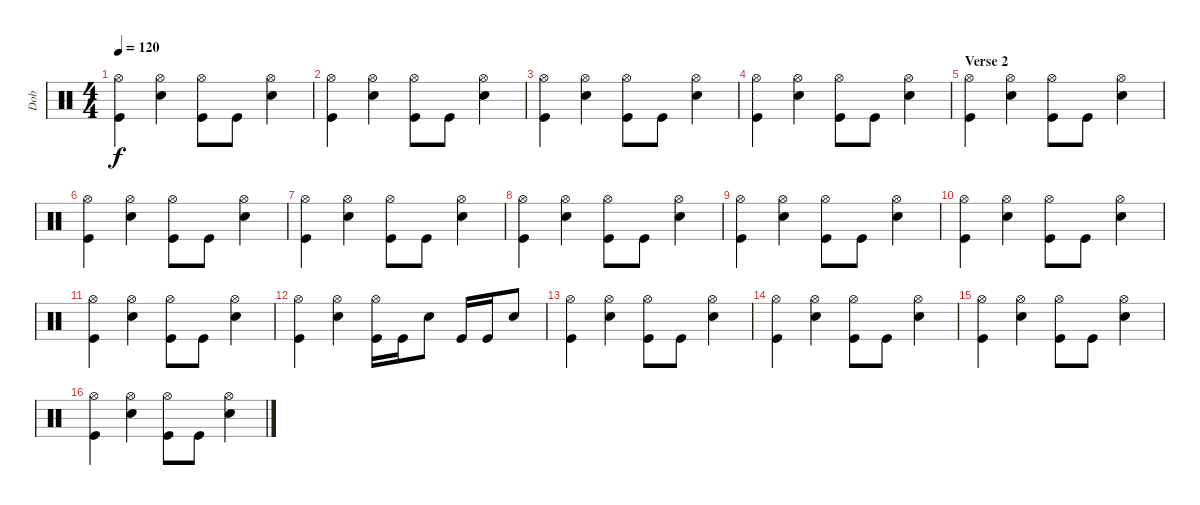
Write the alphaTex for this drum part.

\track ("Dob" "Dob") {instrument percussion}
\staff {score}
\articulation defaults
\ts (4 4)
\tempo 120
\clef neutral
\ks c
("Hi-Hat (open)" "Kick (hit)").4{dy f} ("Hi-Hat (open)" "Snare (hit) 2").4 ("Hi-Hat (open)" "Kick (hit)").8 "Kick (hit)".8 ("Hi-Hat (open)" "Snare (hit) 2").4 |
("Hi-Hat (open)" "Kick (hit)").4 ("Hi-Hat (open)" "Snare (hit) 2").4 ("Hi-Hat (open)" "Kick (hit)").8 "Kick (hit)".8 ("Hi-Hat (open)" "Snare (hit) 2").4 |
("Hi-Hat (open)" "Kick (hit)").4 ("Hi-Hat (open)" "Snare (hit) 2").4 ("Hi-Hat (open)" "Kick (hit)").8 "Kick (hit)".8 ("Hi-Hat (open)" "Snare (hit) 2").4 |
("Hi-Hat (open)" "Kick (hit)").4 ("Hi-Hat (open)" "Snare (hit) 2").4 ("Hi-Hat (open)" "Kick (hit)").8 "Kick (hit)".8 ("Hi-Hat (open)" "Snare (hit) 2").4 |
\section ("" "Verse 2")
("Hi-Hat (open)" "Kick (hit)").4 ("Hi-Hat (open)" "Snare (hit) 2").4 ("Hi-Hat (open)" "Kick (hit)").8 "Kick (hit)".8 ("Hi-Hat (open)" "Snare (hit) 2").4 |
("Hi-Hat (open)" "Kick (hit)").4 ("Hi-Hat (open)" "Snare (hit) 2").4 ("Hi-Hat (open)" "Kick (hit)").8 "Kick (hit)".8 ("Hi-Hat (open)" "Snare (hit) 2").4 |
("Hi-Hat (open)" "Kick (hit)").4 ("Hi-Hat (open)" "Snare (hit) 2").4 ("Hi-Hat (open)" "Kick (hit)").8 "Kick (hit)".8 ("Hi-Hat (open)" "Snare (hit) 2").4 |
("Hi-Hat (open)" "Kick (hit)").4 ("Hi-Hat (open)" "Snare (hit) 2").4 ("Hi-Hat (open)" "Kick (hit)").8 "Kick (hit)".8 ("Hi-Hat (open)" "Snare (hit) 2").4 |
("Hi-Hat (open)" "Kick (hit)").4 ("Hi-Hat (open)" "Snare (hit) 2").4 ("Hi-Hat (open)" "Kick (hit)").8 "Kick (hit)".8 ("Hi-Hat (open)" "Snare (hit) 2").4 |
("Hi-Hat (open)" "Kick (hit)").4 ("Hi-Hat (open)" "Snare (hit) 2").4 ("Hi-Hat (open)" "Kick (hit)").8 "Kick (hit)".8 ("Hi-Hat (open)" "Snare (hit) 2").4 |
("Hi-Hat (open)" "Kick (hit)").4 ("Hi-Hat (open)" "Snare (hit) 2").4 ("Hi-Hat (open)" "Kick (hit)").8 "Kick (hit)".8 ("Hi-Hat (open)" "Snare (hit) 2").4 |
("Hi-Hat (open)" "Kick (hit)").4 ("Hi-Hat (open)" "Snare (hit) 2").4 ("Hi-Hat (open)" "Kick (hit)").16 "Kick (hit)".16 "Snare (hit) 2".8 "Kick (hit)".16 "Kick (hit)".16 "Snare (hit) 2".8 |
("Hi-Hat (open)" "Kick (hit)").4 ("Hi-Hat (open)" "Snare (hit) 2").4 ("Hi-Hat (open)" "Kick (hit)").8 "Kick (hit)".8 ("Hi-Hat (open)" "Snare (hit) 2").4 |
("Hi-Hat (open)" "Kick (hit)").4 ("Hi-Hat (open)" "Snare (hit) 2").4 ("Hi-Hat (open)" "Kick (hit)").8 "Kick (hit)".8 ("Hi-Hat (open)" "Snare (hit) 2").4 |
("Hi-Hat (open)" "Kick (hit)").4 ("Hi-Hat (open)" "Snare (hit) 2").4 ("Hi-Hat (open)" "Kick (hit)").8 "Kick (hit)".8 ("Hi-Hat (open)" "Snare (hit) 2").4 |
("Hi-Hat (open)" "Kick (hit)").4 ("Hi-Hat (open)" "Snare (hit) 2").4 ("Hi-Hat (open)" "Kick (hit)").8 "Kick (hit)".8 ("Hi-Hat (open)" "Snare (hit) 2").4
